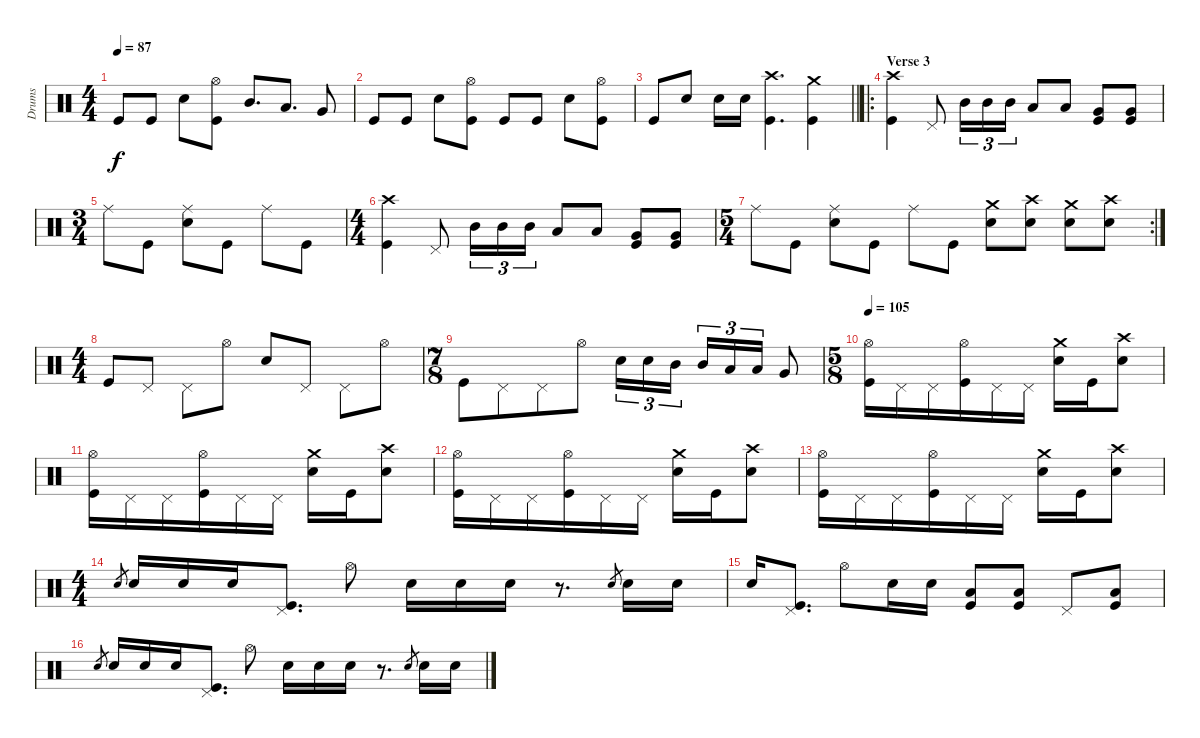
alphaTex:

\track ("Drums" "Drums") {instrument percussion}
\staff {score}
\articulation defaults
\ts (4 4)
\tempo 87
\clef neutral
\ks c "Kick (hit)".8{dy f} "Kick (hit)".8 "Snare (hit) 2".8
("Hi-Hat (open)" "Kick (hit)").8 "Mid Tom (hit)".8{d} "Low Tom (hit)".8{d} "Very Low Tom (hit)".8 |
"Kick (hit)".8 "Kick (hit)".8 "Snare (hit) 2".8 ("Hi-Hat (open)" "Kick (hit)").8 "Kick (hit)".8 "Kick (hit)".8 "Snare (hit) 2".8 ("Hi-Hat (open)" "Kick (hit)").8 |
\barLineRight lightlight "Kick (hit)".8 "Snare (hit) 2".8 "Snare (hit) 2".16 "Snare (hit) 2".16
("Crash high (hit)" "Kick (hit)").4{d} ("Crash medium (hit)" "Kick (hit)").4 |
\ro
\section ("" "Verse 3")
("Crash high (hit)" "Kick (hit)").4 "Pedal Hi-Hat (hit)".8 "Mid Tom (hit)".16{tu (3 2)} "Mid Tom (hit)".16{tu (3 2)} "Mid Tom (hit)".16{tu (3 2)} "Low Tom (hit)".8 "Low Tom (hit)".8 ("Very Low Tom (hit)" "Kick (hit)").8 ("Very Low Tom (hit)" "Kick (hit)").8 |
\ts (3 4)
"Ride (middle)".8 "Kick (hit)".8 ("Ride (middle)" "Snare (hit) 2").8 "Kick (hit)".8 "Ride (middle)".8 "Kick (hit)".8 |
\ts (4 4)
("Crash high (hit)" "Kick (hit)").4 "Pedal Hi-Hat (hit)".8 "Mid Tom (hit)".16{tu (3 2)} "Mid Tom (hit)".16{tu (3 2)} "Mid Tom (hit)".16{tu (3 2)} "Low Tom (hit)".8 "Low Tom (hit)".8 ("Very Low Tom (hit)" "Kick (hit)").8 ("Very Low Tom (hit)" "Kick (hit)").8 |
\rc 2
\ts (5 4)
"Ride (middle)".8 "Kick (hit)".8 ("Ride (middle)" "Snare (hit) 2").8 "Kick (hit)".8 "Ride (middle)".8 "Kick (hit)".8 ("Crash medium (hit)" "Snare (hit) 2").8 ("Crash high (hit)" "Snare (hit) 2").8 ("Crash medium (hit)" "Snare (hit) 2").8 ("Crash high (hit)" "Snare (hit) 2").8 |
\ts (4 4)
"Kick (hit)".8 "Pedal Hi-Hat (hit)".8 "Pedal Hi-Hat (hit)".8 "Hi-Hat (open)".8 "Snare (hit) 2".8 "Pedal Hi-Hat (hit)".8 "Pedal Hi-Hat (hit)".8 "Hi-Hat (open)".8 |
\ts (7 8)
"Kick (hit)".8 "Pedal Hi-Hat (hit)".8 "Pedal Hi-Hat (hit)".8 "Hi-Hat (open)".8 "Snare (hit) 2".16{tu (3 2)} "Snare (hit) 2".16{tu (3 2)} "Mid Tom (hit)".16{tu (3 2)} "Mid Tom (hit)".16{tu (3 2)} "Low Tom (hit)".16{tu (3 2)} "Low Tom (hit)".16{tu (3 2)} "Very Low Tom (hit)".8 |
\ts (5 8)
\tempo 105
("Hi-Hat (open)" "Kick (hit)").16 "Pedal Hi-Hat (hit)".16 "Pedal Hi-Hat (hit)".16 ("Hi-Hat (open)" "Kick (hit)").16 "Pedal Hi-Hat (hit)".16 "Pedal Hi-Hat (hit)".16 ("Crash medium (hit)" "Snare (hit) 2").16 "Kick (hit)".16 ("Crash high (hit)" "Snare (hit) 2").8 |
("Hi-Hat (open)" "Kick (hit)").16 "Pedal Hi-Hat (hit)".16 "Pedal Hi-Hat (hit)".16 ("Hi-Hat (open)" "Kick (hit)").16 "Pedal Hi-Hat (hit)".16 "Pedal Hi-Hat (hit)".16 ("Crash medium (hit)" "Snare (hit) 2").16 "Kick (hit)".16 ("Crash high (hit)" "Snare (hit) 2").8 |
("Hi-Hat (open)" "Kick (hit)").16 "Pedal Hi-Hat (hit)".16 "Pedal Hi-Hat (hit)".16 ("Hi-Hat (open)" "Kick (hit)").16 "Pedal Hi-Hat (hit)".16 "Pedal Hi-Hat (hit)".16 ("Crash medium (hit)" "Snare (hit) 2").16 "Kick (hit)".16 ("Crash high (hit)" "Snare (hit) 2").8 |
("Hi-Hat (open)" "Kick (hit)").16 "Pedal Hi-Hat (hit)".16 "Pedal Hi-Hat (hit)".16 ("Hi-Hat (open)" "Kick (hit)").16 "Pedal Hi-Hat (hit)".16 "Pedal Hi-Hat (hit)".16 ("Crash medium (hit)" "Snare (hit) 2").16 "Kick (hit)".16 ("Crash high (hit)" "Snare (hit) 2").8 |
\ts (4 4)
"Snare (hit) 2".8{gr} "Snare (hit) 2".16 "Snare (hit) 2".16 "Snare (hit) 2".16 ("Pedal Hi-Hat (hit)" "Kick (hit)").8{d} "Hi-Hat (open)".8 "Snare (hit) 2".16 "Snare (hit) 2".16 "Snare (hit) 2".16 r.8{d} "Snare (hit) 2".8{gr} "Snare (hit) 2".16 "Snare (hit) 2".16 |
"Snare (hit) 2".16 ("Pedal Hi-Hat (hit)" "Kick (hit)").8{d} "Hi-Hat (open)".8 "Snare (hit) 2".16 "Snare (hit) 2".16 ("Low Tom (hit)" "Kick (hit)").8 ("Low Tom (hit)" "Kick (hit)").8 "Pedal Hi-Hat (hit)".8 ("Low Tom (hit)" "Kick (hit)").8 |
"Snare (hit) 2".8{gr} "Snare (hit) 2".16 "Snare (hit) 2".16 "Snare (hit) 2".16 ("Pedal Hi-Hat (hit)" "Kick (hit)").8{d} "Hi-Hat (open)".8 "Snare (hit) 2".16 "Snare (hit) 2".16 "Snare (hit) 2".16 r.8{d} "Snare (hit) 2".8{gr} "Snare (hit) 2".16 "Snare (hit) 2".16
